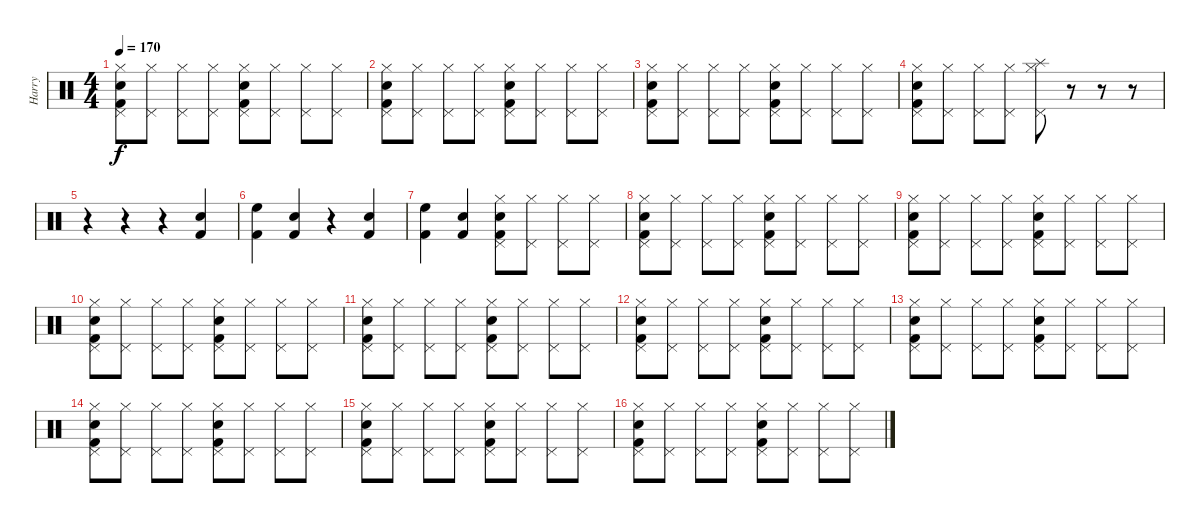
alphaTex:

\track ("Harry" "Harry") {instrument percussion}
\staff {score}
\articulation defaults
\ts (4 4)
\tempo 170
\clef neutral
\ks c
("Hi-Hat (closed)" "Pedal Hi-Hat (hit)" "Kick (hit) 2" "Snare (hit) 2").8{dy f} ("Hi-Hat (closed)" "Pedal Hi-Hat (hit)").8 ("Hi-Hat (closed)" "Pedal Hi-Hat (hit)").8 ("Hi-Hat (closed)" "Pedal Hi-Hat (hit)").8 ("Hi-Hat (closed)" "Pedal Hi-Hat (hit)" "Kick (hit) 2" "Snare (hit) 2").8 ("Hi-Hat (closed)" "Pedal Hi-Hat (hit)").8 ("Hi-Hat (closed)" "Pedal Hi-Hat (hit)").8 ("Hi-Hat (closed)" "Pedal Hi-Hat (hit)").8 |
("Hi-Hat (closed)" "Pedal Hi-Hat (hit)" "Kick (hit) 2" "Snare (hit) 2").8 ("Hi-Hat (closed)" "Pedal Hi-Hat (hit)").8 ("Hi-Hat (closed)" "Pedal Hi-Hat (hit)").8 ("Hi-Hat (closed)" "Pedal Hi-Hat (hit)").8 ("Hi-Hat (closed)" "Pedal Hi-Hat (hit)" "Kick (hit) 2" "Snare (hit) 2").8 ("Hi-Hat (closed)" "Pedal Hi-Hat (hit)").8 ("Hi-Hat (closed)" "Pedal Hi-Hat (hit)").8 ("Hi-Hat (closed)" "Pedal Hi-Hat (hit)").8 |
("Hi-Hat (closed)" "Pedal Hi-Hat (hit)" "Kick (hit) 2" "Snare (hit) 2").8 ("Hi-Hat (closed)" "Pedal Hi-Hat (hit)").8 ("Hi-Hat (closed)" "Pedal Hi-Hat (hit)").8 ("Hi-Hat (closed)" "Pedal Hi-Hat (hit)").8 ("Hi-Hat (closed)" "Pedal Hi-Hat (hit)" "Kick (hit) 2" "Snare (hit) 2").8 ("Hi-Hat (closed)" "Pedal Hi-Hat (hit)").8 ("Hi-Hat (closed)" "Pedal Hi-Hat (hit)").8 ("Hi-Hat (closed)" "Pedal Hi-Hat (hit)").8 |
("Hi-Hat (closed)" "Pedal Hi-Hat (hit)" "Kick (hit) 2" "Snare (hit) 2").8 ("Hi-Hat (closed)" "Pedal Hi-Hat (hit)").8 ("Hi-Hat (closed)" "Pedal Hi-Hat (hit)").8 ("Hi-Hat (closed)" "Pedal Hi-Hat (hit)").8 ("Hi-Hat (closed)" "Pedal Hi-Hat (hit)" "Splash (hit)").8 r.8 r.8 r.8 |
r.4 r.4 r.4 ("Kick (hit) 2" "Snare (hit) 2").4 |
("High Floor Tom (hit)" "Kick (hit) 2").4 ("Kick (hit) 2" "Snare (hit) 2").4 r.4 ("Kick (hit) 2" "Snare (hit) 2").4 |
("High Floor Tom (hit)" "Kick (hit) 2").4 ("Kick (hit) 2" "Snare (hit) 2").4 ("Hi-Hat (closed)" "Pedal Hi-Hat (hit)" "Kick (hit) 2" "Snare (hit) 2").8 ("Hi-Hat (closed)" "Pedal Hi-Hat (hit)").8 ("Hi-Hat (closed)" "Pedal Hi-Hat (hit)").8 ("Hi-Hat (closed)" "Pedal Hi-Hat (hit)").8 |
("Hi-Hat (closed)" "Pedal Hi-Hat (hit)" "Kick (hit) 2" "Snare (hit) 2").8 ("Hi-Hat (closed)" "Pedal Hi-Hat (hit)").8 ("Hi-Hat (closed)" "Pedal Hi-Hat (hit)").8 ("Hi-Hat (closed)" "Pedal Hi-Hat (hit)").8 ("Hi-Hat (closed)" "Pedal Hi-Hat (hit)" "Kick (hit) 2" "Snare (hit) 2").8 ("Hi-Hat (closed)" "Pedal Hi-Hat (hit)").8 ("Hi-Hat (closed)" "Pedal Hi-Hat (hit)").8 ("Hi-Hat (closed)" "Pedal Hi-Hat (hit)").8 |
("Hi-Hat (closed)" "Pedal Hi-Hat (hit)" "Kick (hit) 2" "Snare (hit) 2").8 ("Hi-Hat (closed)" "Pedal Hi-Hat (hit)").8 ("Hi-Hat (closed)" "Pedal Hi-Hat (hit)").8 ("Hi-Hat (closed)" "Pedal Hi-Hat (hit)").8 ("Hi-Hat (closed)" "Pedal Hi-Hat (hit)" "Kick (hit) 2" "Snare (hit) 2").8 ("Hi-Hat (closed)" "Pedal Hi-Hat (hit)").8 ("Hi-Hat (closed)" "Pedal Hi-Hat (hit)").8 ("Hi-Hat (closed)" "Pedal Hi-Hat (hit)").8 |
("Hi-Hat (closed)" "Pedal Hi-Hat (hit)" "Kick (hit) 2" "Snare (hit) 2").8 ("Hi-Hat (closed)" "Pedal Hi-Hat (hit)").8 ("Hi-Hat (closed)" "Pedal Hi-Hat (hit)").8 ("Hi-Hat (closed)" "Pedal Hi-Hat (hit)").8 ("Hi-Hat (closed)" "Pedal Hi-Hat (hit)" "Kick (hit) 2" "Snare (hit) 2").8 ("Hi-Hat (closed)" "Pedal Hi-Hat (hit)").8 ("Hi-Hat (closed)" "Pedal Hi-Hat (hit)").8 ("Hi-Hat (closed)" "Pedal Hi-Hat (hit)").8 |
("Hi-Hat (closed)" "Pedal Hi-Hat (hit)" "Kick (hit) 2" "Snare (hit) 2").8 ("Hi-Hat (closed)" "Pedal Hi-Hat (hit)").8 ("Hi-Hat (closed)" "Pedal Hi-Hat (hit)").8 ("Hi-Hat (closed)" "Pedal Hi-Hat (hit)").8 ("Hi-Hat (closed)" "Pedal Hi-Hat (hit)" "Kick (hit) 2" "Snare (hit) 2").8 ("Hi-Hat (closed)" "Pedal Hi-Hat (hit)").8 ("Hi-Hat (closed)" "Pedal Hi-Hat (hit)").8 ("Hi-Hat (closed)" "Pedal Hi-Hat (hit)").8 |
("Hi-Hat (closed)" "Pedal Hi-Hat (hit)" "Kick (hit) 2" "Snare (hit) 2").8 ("Hi-Hat (closed)" "Pedal Hi-Hat (hit)").8 ("Hi-Hat (closed)" "Pedal Hi-Hat (hit)").8 ("Hi-Hat (closed)" "Pedal Hi-Hat (hit)").8 ("Hi-Hat (closed)" "Pedal Hi-Hat (hit)" "Kick (hit) 2" "Snare (hit) 2").8 ("Hi-Hat (closed)" "Pedal Hi-Hat (hit)").8 ("Hi-Hat (closed)" "Pedal Hi-Hat (hit)").8 ("Hi-Hat (closed)" "Pedal Hi-Hat (hit)").8 |
("Hi-Hat (closed)" "Pedal Hi-Hat (hit)" "Kick (hit) 2" "Snare (hit) 2").8 ("Hi-Hat (closed)" "Pedal Hi-Hat (hit)").8 ("Hi-Hat (closed)" "Pedal Hi-Hat (hit)").8 ("Hi-Hat (closed)" "Pedal Hi-Hat (hit)").8 ("Hi-Hat (closed)" "Pedal Hi-Hat (hit)" "Kick (hit) 2" "Snare (hit) 2").8 ("Hi-Hat (closed)" "Pedal Hi-Hat (hit)").8 ("Hi-Hat (closed)" "Pedal Hi-Hat (hit)").8 ("Hi-Hat (closed)" "Pedal Hi-Hat (hit)").8 |
("Hi-Hat (closed)" "Pedal Hi-Hat (hit)" "Kick (hit) 2" "Snare (hit) 2").8 ("Hi-Hat (closed)" "Pedal Hi-Hat (hit)").8 ("Hi-Hat (closed)" "Pedal Hi-Hat (hit)").8 ("Hi-Hat (closed)" "Pedal Hi-Hat (hit)").8 ("Hi-Hat (closed)" "Pedal Hi-Hat (hit)" "Kick (hit) 2" "Snare (hit) 2").8 ("Hi-Hat (closed)" "Pedal Hi-Hat (hit)").8 ("Hi-Hat (closed)" "Pedal Hi-Hat (hit)").8 ("Hi-Hat (closed)" "Pedal Hi-Hat (hit)").8 |
("Hi-Hat (closed)" "Pedal Hi-Hat (hit)" "Kick (hit) 2" "Snare (hit) 2").8 ("Hi-Hat (closed)" "Pedal Hi-Hat (hit)").8 ("Hi-Hat (closed)" "Pedal Hi-Hat (hit)").8 ("Hi-Hat (closed)" "Pedal Hi-Hat (hit)").8 ("Hi-Hat (closed)" "Pedal Hi-Hat (hit)" "Kick (hit) 2" "Snare (hit) 2").8 ("Hi-Hat (closed)" "Pedal Hi-Hat (hit)").8 ("Hi-Hat (closed)" "Pedal Hi-Hat (hit)").8 ("Hi-Hat (closed)" "Pedal Hi-Hat (hit)").8 |
("Hi-Hat (closed)" "Pedal Hi-Hat (hit)" "Kick (hit) 2" "Snare (hit) 2").8 ("Hi-Hat (closed)" "Pedal Hi-Hat (hit)").8 ("Hi-Hat (closed)" "Pedal Hi-Hat (hit)").8 ("Hi-Hat (closed)" "Pedal Hi-Hat (hit)").8 ("Hi-Hat (closed)" "Pedal Hi-Hat (hit)" "Kick (hit) 2" "Snare (hit) 2").8 ("Hi-Hat (closed)" "Pedal Hi-Hat (hit)").8 ("Hi-Hat (closed)" "Pedal Hi-Hat (hit)").8 ("Hi-Hat (closed)" "Pedal Hi-Hat (hit)").8
